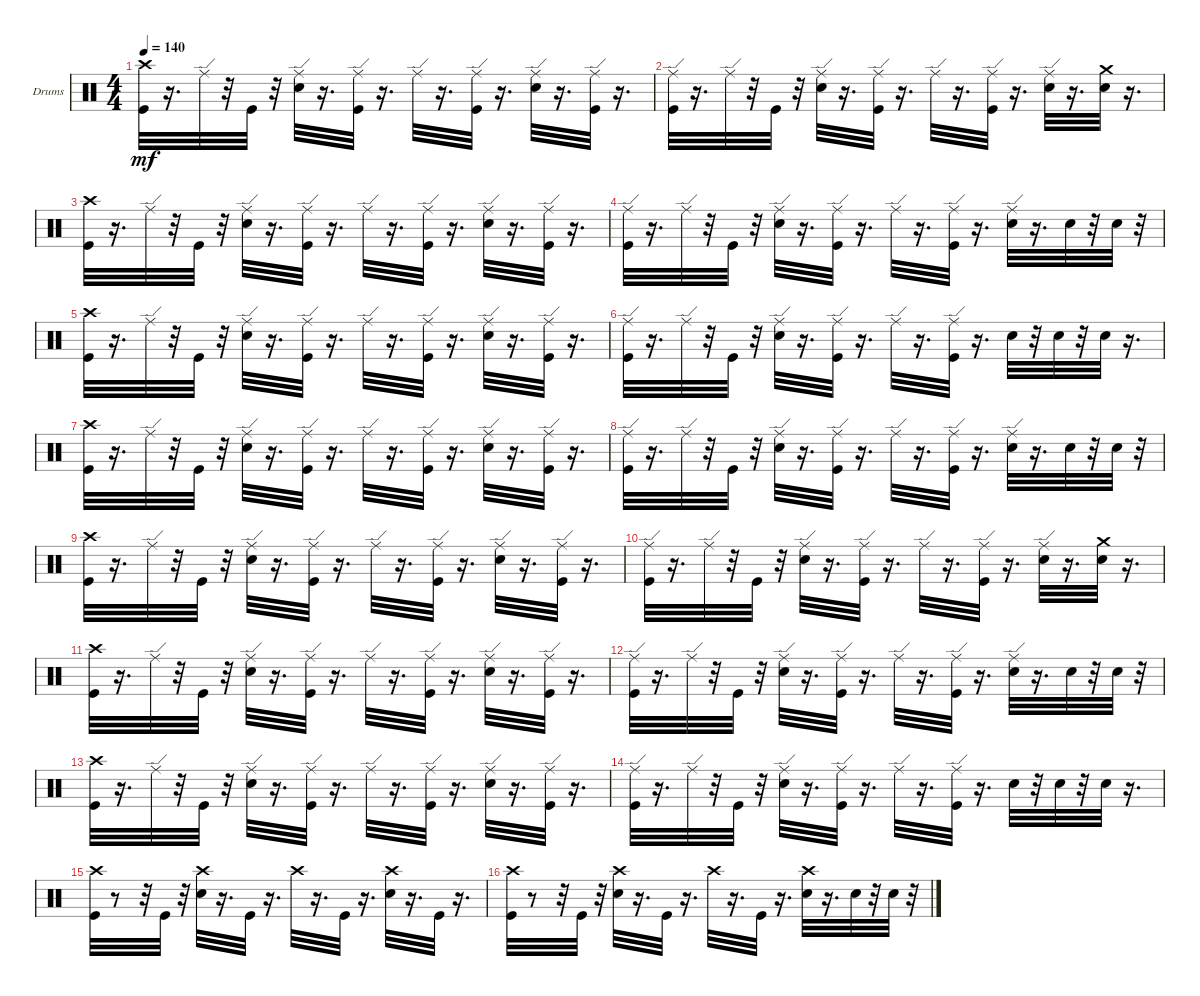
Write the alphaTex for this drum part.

\bracketExtendMode groupsimilarinstruments
\firstSystemTrackNameOrientation horizontal
\otherSystemsTrackNameOrientation horizontal
\track ("" "Drums") {instrument percussion}
\staff {score}
\articulation defaults
\ts (4 4)
\tempo 140
\clef neutral
\ks c
("Kick (hit)" "Crash high (hit)").32{dy mf} r.16{d} "Ride (edge)".32 r.32 "Kick (hit)".32 r.32 ("Snare (hit) 2" "Ride (edge)").32 r.16{d} ("Kick (hit)" "Ride (edge)").32 r.16{d} "Ride (edge)".32 r.16{d} ("Kick (hit)" "Ride (edge)").32 r.16{d} ("Snare (hit) 2" "Ride (edge)").32 r.16{d} ("Kick (hit)" "Ride (edge)").32 r.16{d} |
("Kick (hit)" "Ride (edge)").32 r.16{d} "Ride (edge)".32 r.32 "Kick (hit)".32 r.32 ("Snare (hit) 2" "Ride (edge)").32 r.16{d} ("Kick (hit)" "Ride (edge)").32 r.16{d} "Ride (edge)".32 r.16{d} ("Kick (hit)" "Ride (edge)").32 r.16{d} ("Snare (hit) 2" "Ride (edge)").32 r.16{d} ("Crash medium (hit)" "Snare (hit) 2").32 r.16{d} |
("Crash high (hit)" "Kick (hit)").32 r.16{d} "Ride (edge)".32 r.32 "Kick (hit)".32 r.32 ("Snare (hit) 2" "Ride (edge)").32 r.16{d} ("Kick (hit)" "Ride (edge)").32 r.16{d} "Ride (edge)".32 r.16{d} ("Kick (hit)" "Ride (edge)").32 r.16{d} ("Snare (hit) 2" "Ride (edge)").32 r.16{d} ("Kick (hit)" "Ride (edge)").32 r.16{d} |
("Ride (edge)" "Kick (hit)").32 r.16{d} "Ride (edge)".32 r.32 "Kick (hit)".32 r.32 ("Snare (hit) 2" "Ride (edge)").32 r.16{d} ("Kick (hit)" "Ride (edge)").32 r.16{d} "Ride (edge)".32 r.16{d} ("Kick (hit)" "Ride (edge)").32 r.16{d} ("Snare (hit) 2" "Ride (edge)").32 r.16{d} "Snare (hit) 2".32 r.32 "Snare (hit) 2".32 r.32 |
("Kick (hit)" "Crash high (hit)").32 r.16{d} "Ride (edge)".32 r.32 "Kick (hit)".32 r.32 ("Snare (hit) 2" "Ride (edge)").32 r.16{d} ("Kick (hit)" "Ride (edge)").32 r.16{d} "Ride (edge)".32 r.16{d} ("Kick (hit)" "Ride (edge)").32 r.16{d} ("Snare (hit) 2" "Ride (edge)").32 r.16{d} ("Kick (hit)" "Ride (edge)").32 r.16{d} |
("Kick (hit)" "Ride (edge)").32 r.16{d} "Ride (edge)".32 r.32 "Kick (hit)".32 r.32 ("Snare (hit) 2" "Ride (edge)").32 r.16{d} ("Kick (hit)" "Ride (edge)").32 r.16{d} "Ride (edge)".32 r.16{d} ("Kick (hit)" "Ride (edge)").32 r.16{d} "Snare (hit) 2".32 r.32 "Snare (hit) 2".32 r.32 "Snare (hit) 2".32 r.16{d} |
("Crash high (hit)" "Kick (hit)").32 r.16{d} "Ride (edge)".32 r.32 "Kick (hit)".32 r.32 ("Snare (hit) 2" "Ride (edge)").32 r.16{d} ("Kick (hit)" "Ride (edge)").32 r.16{d} "Ride (edge)".32 r.16{d} ("Kick (hit)" "Ride (edge)").32 r.16{d} ("Snare (hit) 2" "Ride (edge)").32 r.16{d} ("Kick (hit)" "Ride (edge)").32 r.16{d} |
("Ride (edge)" "Kick (hit)").32 r.16{d} "Ride (edge)".32 r.32 "Kick (hit)".32 r.32 ("Snare (hit) 2" "Ride (edge)").32 r.16{d} ("Kick (hit)" "Ride (edge)").32 r.16{d} "Ride (edge)".32 r.16{d} ("Kick (hit)" "Ride (edge)").32 r.16{d} ("Snare (hit) 2" "Ride (edge)").32 r.16{d} "Snare (hit) 2".32 r.32 "Snare (hit) 2".32 r.32 |
("Kick (hit)" "Crash high (hit)").32 r.16{d} "Ride (edge)".32 r.32 "Kick (hit)".32 r.32 ("Snare (hit) 2" "Ride (edge)").32 r.16{d} ("Kick (hit)" "Ride (edge)").32 r.16{d} "Ride (edge)".32 r.16{d} ("Kick (hit)" "Ride (edge)").32 r.16{d} ("Snare (hit) 2" "Ride (edge)").32 r.16{d} ("Kick (hit)" "Ride (edge)").32 r.16{d} |
("Kick (hit)" "Ride (edge)").32 r.16{d} "Ride (edge)".32 r.32 "Kick (hit)".32 r.32 ("Snare (hit) 2" "Ride (edge)").32 r.16{d} ("Kick (hit)" "Ride (edge)").32 r.16{d} "Ride (edge)".32 r.16{d} ("Kick (hit)" "Ride (edge)").32 r.16{d} ("Snare (hit) 2" "Ride (edge)").32 r.16{d} ("Crash medium (hit)" "Snare (hit) 2").32 r.16{d} |
("Crash high (hit)" "Kick (hit)").32 r.16{d} "Ride (edge)".32 r.32 "Kick (hit)".32 r.32 ("Snare (hit) 2" "Ride (edge)").32 r.16{d} ("Kick (hit)" "Ride (edge)").32 r.16{d} "Ride (edge)".32 r.16{d} ("Kick (hit)" "Ride (edge)").32 r.16{d} ("Snare (hit) 2" "Ride (edge)").32 r.16{d} ("Kick (hit)" "Ride (edge)").32 r.16{d} |
("Ride (edge)" "Kick (hit)").32 r.16{d} "Ride (edge)".32 r.32 "Kick (hit)".32 r.32 ("Snare (hit) 2" "Ride (edge)").32 r.16{d} ("Kick (hit)" "Ride (edge)").32 r.16{d} "Ride (edge)".32 r.16{d} ("Kick (hit)" "Ride (edge)").32 r.16{d} ("Snare (hit) 2" "Ride (edge)").32 r.16{d} "Snare (hit) 2".32 r.32 "Snare (hit) 2".32 r.32 |
("Kick (hit)" "Crash high (hit)").32 r.16{d} "Ride (edge)".32 r.32 "Kick (hit)".32 r.32 ("Snare (hit) 2" "Ride (edge)").32 r.16{d} ("Kick (hit)" "Ride (edge)").32 r.16{d} "Ride (edge)".32 r.16{d} ("Kick (hit)" "Ride (edge)").32 r.16{d} ("Snare (hit) 2" "Ride (edge)").32 r.16{d} ("Kick (hit)" "Ride (edge)").32 r.16{d} |
("Kick (hit)" "Ride (edge)").32 r.16{d} "Ride (edge)".32 r.32 "Kick (hit)".32 r.32 ("Snare (hit) 2" "Ride (edge)").32 r.16{d} ("Kick (hit)" "Ride (edge)").32 r.16{d} "Ride (edge)".32 r.16{d} ("Kick (hit)" "Ride (edge)").32 r.16{d} "Snare (hit) 2".32 r.32 "Snare (hit) 2".32 r.32 "Snare (hit) 2".32 r.16{d} |
("Crash high (hit)" "Kick (hit)").32 r.8 r.32 "Kick (hit)".32 r.32 ("Crash high (hit)" "Snare (hit) 2").32 r.16{d} "Kick (hit)".32 r.16{d} "Crash high (hit)".32 r.16{d} "Kick (hit)".32 r.16{d} ("Crash high (hit)" "Snare (hit) 2").32 r.16{d} "Kick (hit)".32 r.16{d} |
("Crash high (hit)" "Kick (hit)").32 r.8 r.32 "Kick (hit)".32 r.32 ("Crash high (hit)" "Snare (hit) 2").32 r.16{d} "Kick (hit)".32 r.16{d} "Crash high (hit)".32 r.16{d} "Kick (hit)".32 r.16{d} ("Crash high (hit)" "Snare (hit) 2").32 r.16{d} "Snare (hit) 2".32 r.32 "Snare (hit) 2".32 r.32
